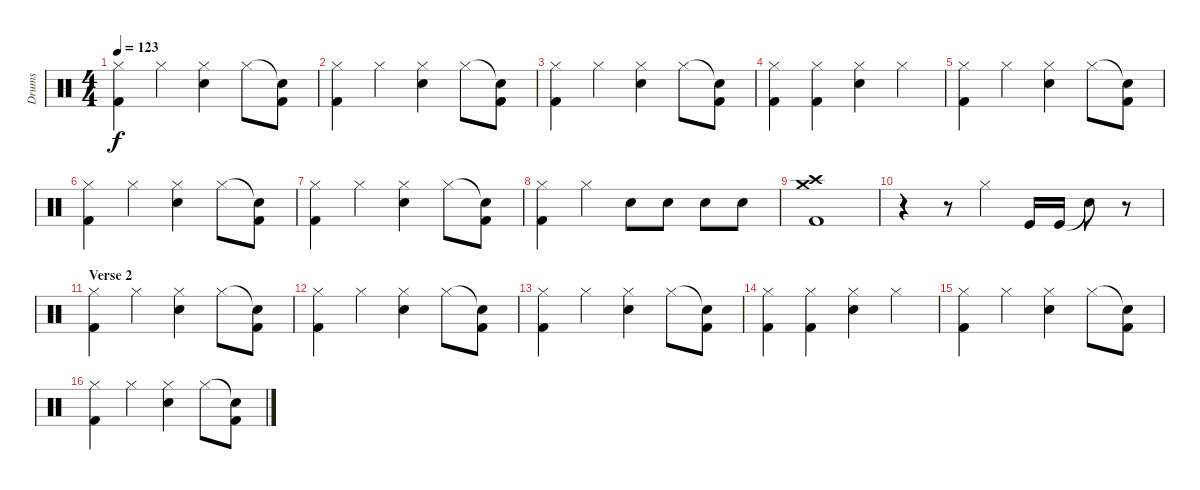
\track ("Drums" "Drums") {instrument percussion}
\staff {score}
\articulation defaults
\ts (4 4)
\tempo 123
\clef neutral
\ks c
("Hi-Hat (closed)" "Kick (hit) 2").4{dy f} "Hi-Hat (closed)".4 ("Hi-Hat (closed)" "Electric Snare (hit)").4 "Hi-Hat (closed)".8 ("Snare (hit)"{t} "Kick (hit) 2").8 |
("Hi-Hat (closed)" "Kick (hit) 2").4 "Hi-Hat (closed)".4 ("Hi-Hat (closed)" "Electric Snare (hit)").4 "Hi-Hat (closed)".8 ("Snare (hit)"{t} "Kick (hit) 2").8 |
("Hi-Hat (closed)" "Kick (hit) 2").4 "Hi-Hat (closed)".4 ("Hi-Hat (closed)" "Electric Snare (hit)").4 "Hi-Hat (closed)".8 ("Snare (hit)"{t} "Kick (hit) 2").8 |
("Hi-Hat (closed)" "Kick (hit) 2").4 ("Hi-Hat (closed)" "Kick (hit) 2").4 ("Hi-Hat (closed)" "Electric Snare (hit)").4 "Hi-Hat (closed)".4 |
("Hi-Hat (closed)" "Kick (hit) 2").4 "Hi-Hat (closed)".4 ("Hi-Hat (closed)" "Electric Snare (hit)").4 "Hi-Hat (closed)".8 ("Snare (hit)"{t} "Kick (hit) 2").8 |
("Hi-Hat (closed)" "Kick (hit) 2").4 "Hi-Hat (closed)".4 ("Hi-Hat (closed)" "Electric Snare (hit)").4 "Hi-Hat (closed)".8 ("Snare (hit)"{t} "Kick (hit) 2").8 |
("Hi-Hat (closed)" "Kick (hit) 2").4 "Hi-Hat (closed)".4 ("Hi-Hat (closed)" "Electric Snare (hit)").4 "Hi-Hat (closed)".8 ("Snare (hit)"{t} "Kick (hit) 2").8 |
("Hi-Hat (closed)" "Kick (hit) 2").4 "Hi-Hat (closed)".4 "Electric Snare (hit)".8 "Electric Snare (hit)".8 "Electric Snare (hit)".8 "Electric Snare (hit)".8 |
("Crash high (hit)" "Crash medium (hit)" "Kick (hit) 2").1 |
r.4 r.8 "Hi-Hat (closed)".4 "Kick (hit)".16 "Kick (hit)".16 "Snare (hit)"{t}.8 r.8 |
\section ("" "Verse 2")
("Hi-Hat (closed)" "Kick (hit) 2").4 "Hi-Hat (closed)".4 ("Hi-Hat (closed)" "Electric Snare (hit)").4 "Hi-Hat (closed)".8 ("Snare (hit)"{t} "Kick (hit) 2").8 |
("Hi-Hat (closed)" "Kick (hit) 2").4 "Hi-Hat (closed)".4 ("Hi-Hat (closed)" "Electric Snare (hit)").4 "Hi-Hat (closed)".8 ("Snare (hit)"{t} "Kick (hit) 2").8 |
("Hi-Hat (closed)" "Kick (hit) 2").4 "Hi-Hat (closed)".4 ("Hi-Hat (closed)" "Electric Snare (hit)").4 "Hi-Hat (closed)".8 ("Snare (hit)"{t} "Kick (hit) 2").8 |
("Hi-Hat (closed)" "Kick (hit) 2").4 ("Hi-Hat (closed)" "Kick (hit) 2").4 ("Hi-Hat (closed)" "Electric Snare (hit)").4 "Hi-Hat (closed)".4 |
("Hi-Hat (closed)" "Kick (hit) 2").4 "Hi-Hat (closed)".4 ("Hi-Hat (closed)" "Electric Snare (hit)").4 "Hi-Hat (closed)".8 ("Snare (hit)"{t} "Kick (hit) 2").8 |
("Hi-Hat (closed)" "Kick (hit) 2").4 "Hi-Hat (closed)".4 ("Hi-Hat (closed)" "Electric Snare (hit)").4 "Hi-Hat (closed)".8 ("Snare (hit)"{t} "Kick (hit) 2").8
